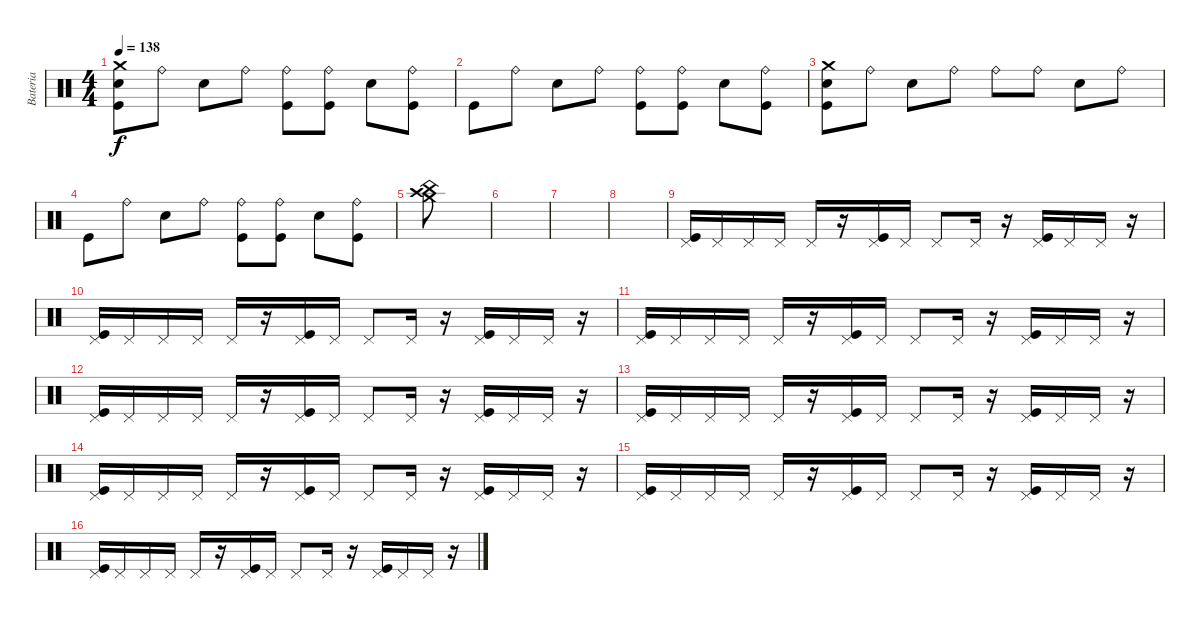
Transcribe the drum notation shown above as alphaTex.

\track ("Bateria" "Bateria") {instrument percussion}
\staff {score}
\articulation defaults
\ts (4 4)
\tempo 138
\clef neutral
\ks c
("Crash medium (hit)" "Kick (hit)" "Snare (hit) 2").8{dy f} "Ride (bell)".8 "Snare (hit) 2".8 "Ride (bell)".8 ("Kick (hit)" "Ride (bell)").8 ("Kick (hit)" "Ride (bell)").8 "Snare (hit) 2".8 ("Kick (hit)" "Ride (bell)").8 |
"Kick (hit)".8 "Ride (bell)".8 "Snare (hit) 2".8 "Ride (bell)".8 ("Kick (hit)" "Ride (bell)").8 ("Kick (hit)" "Ride (bell)").8 "Snare (hit) 2".8 ("Kick (hit)" "Ride (bell)").8 |
("Crash medium (hit)" "Kick (hit)" "Snare (hit) 2").8 "Ride (bell)".8 "Snare (hit) 2".8 "Ride (bell)".8 "Ride (bell)".8 "Ride (bell)".8 "Snare (hit) 2".8 "Ride (bell)".8 |
"Kick (hit)".8 "Ride (bell)".8 "Snare (hit) 2".8 "Ride (bell)".8 ("Kick (hit)" "Ride (bell)").8 ("Kick (hit)" "Ride (bell)").8 "Snare (hit) 2".8 ("Kick (hit)" "Ride (bell)").8 |
("China (hit)" "Crash medium (hit)" "Crash high (hit)").8 |
|
|
|
("Pedal Hi-Hat (hit)" "Kick (hit)").16 "Pedal Hi-Hat (hit)".16 "Pedal Hi-Hat (hit)".16 "Pedal Hi-Hat (hit)".16 "Pedal Hi-Hat (hit)".16 r.16 ("Pedal Hi-Hat (hit)" "Kick (hit)").16 "Pedal Hi-Hat (hit)".16 "Pedal Hi-Hat (hit)".8 "Pedal Hi-Hat (hit)".16 r.16 ("Pedal Hi-Hat (hit)" "Kick (hit)").16 "Pedal Hi-Hat (hit)".16 "Pedal Hi-Hat (hit)".16 r.16 |
("Pedal Hi-Hat (hit)" "Kick (hit)").16 "Pedal Hi-Hat (hit)".16 "Pedal Hi-Hat (hit)".16 "Pedal Hi-Hat (hit)".16 "Pedal Hi-Hat (hit)".16 r.16 ("Pedal Hi-Hat (hit)" "Kick (hit)").16 "Pedal Hi-Hat (hit)".16 "Pedal Hi-Hat (hit)".8 "Pedal Hi-Hat (hit)".16 r.16 ("Pedal Hi-Hat (hit)" "Kick (hit)").16 "Pedal Hi-Hat (hit)".16 "Pedal Hi-Hat (hit)".16 r.16 |
("Pedal Hi-Hat (hit)" "Kick (hit)").16 "Pedal Hi-Hat (hit)".16 "Pedal Hi-Hat (hit)".16 "Pedal Hi-Hat (hit)".16 "Pedal Hi-Hat (hit)".16 r.16 ("Pedal Hi-Hat (hit)" "Kick (hit)").16 "Pedal Hi-Hat (hit)".16 "Pedal Hi-Hat (hit)".8 "Pedal Hi-Hat (hit)".16 r.16 ("Pedal Hi-Hat (hit)" "Kick (hit)").16 "Pedal Hi-Hat (hit)".16 "Pedal Hi-Hat (hit)".16 r.16 |
("Pedal Hi-Hat (hit)" "Kick (hit)").16 "Pedal Hi-Hat (hit)".16 "Pedal Hi-Hat (hit)".16 "Pedal Hi-Hat (hit)".16 "Pedal Hi-Hat (hit)".16 r.16 ("Pedal Hi-Hat (hit)" "Kick (hit)").16 "Pedal Hi-Hat (hit)".16 "Pedal Hi-Hat (hit)".8 "Pedal Hi-Hat (hit)".16 r.16 ("Pedal Hi-Hat (hit)" "Kick (hit)").16 "Pedal Hi-Hat (hit)".16 "Pedal Hi-Hat (hit)".16 r.16 |
("Pedal Hi-Hat (hit)" "Kick (hit)").16 "Pedal Hi-Hat (hit)".16 "Pedal Hi-Hat (hit)".16 "Pedal Hi-Hat (hit)".16 "Pedal Hi-Hat (hit)".16 r.16 ("Pedal Hi-Hat (hit)" "Kick (hit)").16 "Pedal Hi-Hat (hit)".16 "Pedal Hi-Hat (hit)".8 "Pedal Hi-Hat (hit)".16 r.16 ("Pedal Hi-Hat (hit)" "Kick (hit)").16 "Pedal Hi-Hat (hit)".16 "Pedal Hi-Hat (hit)".16 r.16 |
("Pedal Hi-Hat (hit)" "Kick (hit)").16 "Pedal Hi-Hat (hit)".16 "Pedal Hi-Hat (hit)".16 "Pedal Hi-Hat (hit)".16 "Pedal Hi-Hat (hit)".16 r.16 ("Pedal Hi-Hat (hit)" "Kick (hit)").16 "Pedal Hi-Hat (hit)".16 "Pedal Hi-Hat (hit)".8 "Pedal Hi-Hat (hit)".16 r.16 ("Pedal Hi-Hat (hit)" "Kick (hit)").16 "Pedal Hi-Hat (hit)".16 "Pedal Hi-Hat (hit)".16 r.16 |
("Pedal Hi-Hat (hit)" "Kick (hit)").16 "Pedal Hi-Hat (hit)".16 "Pedal Hi-Hat (hit)".16 "Pedal Hi-Hat (hit)".16 "Pedal Hi-Hat (hit)".16 r.16 ("Pedal Hi-Hat (hit)" "Kick (hit)").16 "Pedal Hi-Hat (hit)".16 "Pedal Hi-Hat (hit)".8 "Pedal Hi-Hat (hit)".16 r.16 ("Pedal Hi-Hat (hit)" "Kick (hit)").16 "Pedal Hi-Hat (hit)".16 "Pedal Hi-Hat (hit)".16 r.16 |
("Pedal Hi-Hat (hit)" "Kick (hit)").16 "Pedal Hi-Hat (hit)".16 "Pedal Hi-Hat (hit)".16 "Pedal Hi-Hat (hit)".16 "Pedal Hi-Hat (hit)".16 r.16 ("Pedal Hi-Hat (hit)" "Kick (hit)").16 "Pedal Hi-Hat (hit)".16 "Pedal Hi-Hat (hit)".8 "Pedal Hi-Hat (hit)".16 r.16 ("Pedal Hi-Hat (hit)" "Kick (hit)").16 "Pedal Hi-Hat (hit)".16 "Pedal Hi-Hat (hit)".16 r.16
